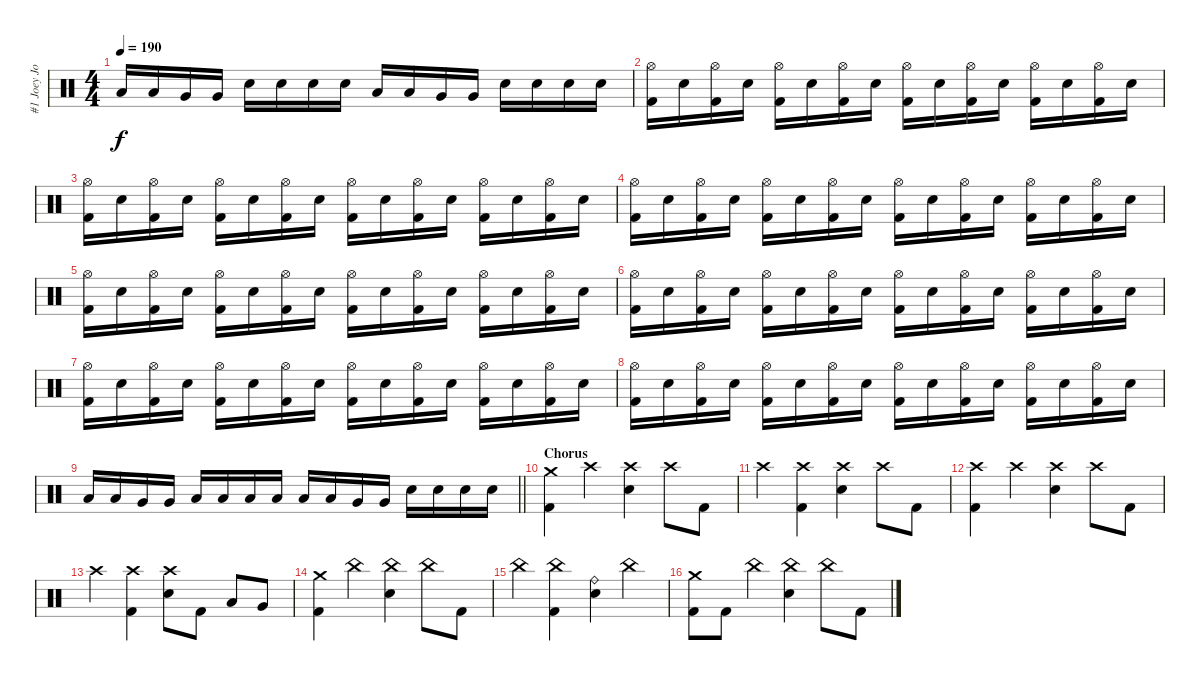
\track ("#1 Joey Jordison" "#1 Joey Jo") {instrument percussion}
\staff {score}
\articulation defaults
\ts (4 4)
\tempo 190
\clef neutral
\ks c "Low Tom (hit)".16{dy f} "Low Tom (hit)".16 "Very Low Tom (hit)".16 "Very Low Tom (hit)".16 "Electric Snare (hit)".16 "Electric Snare (hit)".16 "Electric Snare (hit)".16 "Electric Snare (hit)".16 "Low Tom (hit)".16 "Low Tom (hit)".16 "Very Low Tom (hit)".16 "Very Low Tom (hit)".16 "Electric Snare (hit)".16 "Electric Snare (hit)".16 "Electric Snare (hit)".16 "Electric Snare (hit)".16
|
("Hi-Hat (open)" "Kick (hit) 2").16 "Electric Snare (hit)".16 ("Hi-Hat (open)" "Kick (hit) 2").16 "Electric Snare (hit)".16 ("Hi-Hat (open)" "Kick (hit) 2").16 "Electric Snare (hit)".16 ("Hi-Hat (open)" "Kick (hit) 2").16 "Electric Snare (hit)".16 ("Hi-Hat (open)" "Kick (hit) 2").16 "Electric Snare (hit)".16 ("Hi-Hat (open)" "Kick (hit) 2").16 "Electric Snare (hit)".16 ("Hi-Hat (open)" "Kick (hit) 2").16 "Electric Snare (hit)".16 ("Hi-Hat (open)" "Kick (hit) 2").16 "Electric Snare (hit)".16 |
("Hi-Hat (open)" "Kick (hit) 2").16 "Electric Snare (hit)".16 ("Hi-Hat (open)" "Kick (hit) 2").16 "Electric Snare (hit)".16 ("Hi-Hat (open)" "Kick (hit) 2").16 "Electric Snare (hit)".16 ("Hi-Hat (open)" "Kick (hit) 2").16 "Electric Snare (hit)".16 ("Hi-Hat (open)" "Kick (hit) 2").16 "Electric Snare (hit)".16 ("Hi-Hat (open)" "Kick (hit) 2").16 "Electric Snare (hit)".16 ("Hi-Hat (open)" "Kick (hit) 2").16 "Electric Snare (hit)".16 ("Hi-Hat (open)" "Kick (hit) 2").16 "Electric Snare (hit)".16 |
("Hi-Hat (open)" "Kick (hit) 2").16 "Electric Snare (hit)".16 ("Hi-Hat (open)" "Kick (hit) 2").16 "Electric Snare (hit)".16 ("Hi-Hat (open)" "Kick (hit) 2").16 "Electric Snare (hit)".16 ("Hi-Hat (open)" "Kick (hit) 2").16 "Electric Snare (hit)".16 ("Hi-Hat (open)" "Kick (hit) 2").16 "Electric Snare (hit)".16 ("Hi-Hat (open)" "Kick (hit) 2").16 "Electric Snare (hit)".16 ("Hi-Hat (open)" "Kick (hit) 2").16 "Electric Snare (hit)".16 ("Hi-Hat (open)" "Kick (hit) 2").16 "Electric Snare (hit)".16 |
("Hi-Hat (open)" "Kick (hit) 2").16 "Electric Snare (hit)".16 ("Hi-Hat (open)" "Kick (hit) 2").16 "Electric Snare (hit)".16 ("Hi-Hat (open)" "Kick (hit) 2").16 "Electric Snare (hit)".16 ("Hi-Hat (open)" "Kick (hit) 2").16 "Electric Snare (hit)".16 ("Hi-Hat (open)" "Kick (hit) 2").16 "Electric Snare (hit)".16 ("Hi-Hat (open)" "Kick (hit) 2").16 "Electric Snare (hit)".16 ("Hi-Hat (open)" "Kick (hit) 2").16 "Electric Snare (hit)".16 ("Hi-Hat (open)" "Kick (hit) 2").16 "Electric Snare (hit)".16 |
("Hi-Hat (open)" "Kick (hit) 2").16 "Electric Snare (hit)".16 ("Hi-Hat (open)" "Kick (hit) 2").16 "Electric Snare (hit)".16 ("Hi-Hat (open)" "Kick (hit) 2").16 "Electric Snare (hit)".16 ("Hi-Hat (open)" "Kick (hit) 2").16 "Electric Snare (hit)".16 ("Hi-Hat (open)" "Kick (hit) 2").16 "Electric Snare (hit)".16 ("Hi-Hat (open)" "Kick (hit) 2").16 "Electric Snare (hit)".16 ("Hi-Hat (open)" "Kick (hit) 2").16 "Electric Snare (hit)".16 ("Hi-Hat (open)" "Kick (hit) 2").16 "Electric Snare (hit)".16 |
("Hi-Hat (open)" "Kick (hit) 2").16 "Electric Snare (hit)".16 ("Hi-Hat (open)" "Kick (hit) 2").16 "Electric Snare (hit)".16 ("Hi-Hat (open)" "Kick (hit) 2").16 "Electric Snare (hit)".16 ("Hi-Hat (open)" "Kick (hit) 2").16 "Electric Snare (hit)".16 ("Hi-Hat (open)" "Kick (hit) 2").16 "Electric Snare (hit)".16 ("Hi-Hat (open)" "Kick (hit) 2").16 "Electric Snare (hit)".16 ("Hi-Hat (open)" "Kick (hit) 2").16 "Electric Snare (hit)".16 ("Hi-Hat (open)" "Kick (hit) 2").16 "Electric Snare (hit)".16 |
("Hi-Hat (open)" "Kick (hit) 2").16 "Electric Snare (hit)".16 ("Hi-Hat (open)" "Kick (hit) 2").16 "Electric Snare (hit)".16 ("Hi-Hat (open)" "Kick (hit) 2").16 "Electric Snare (hit)".16 ("Hi-Hat (open)" "Kick (hit) 2").16 "Electric Snare (hit)".16 ("Hi-Hat (open)" "Kick (hit) 2").16 "Electric Snare (hit)".16 ("Hi-Hat (open)" "Kick (hit) 2").16 "Electric Snare (hit)".16 ("Hi-Hat (open)" "Kick (hit) 2").16 "Electric Snare (hit)".16 ("Hi-Hat (open)" "Kick (hit) 2").16 "Electric Snare (hit)".16 |
\barLineRight lightlight "Low Tom (hit)".16 "Low Tom (hit)".16 "Very Low Tom (hit)".16 "Very Low Tom (hit)".16 "Low Floor Tom (hit)".16 "Low Floor Tom (hit)".16 "Low Floor Tom (hit)".16 "Low Floor Tom (hit)".16 "Low Tom (hit)".16 "Low Tom (hit)".16 "Very Low Tom (hit)".16 "Very Low Tom (hit)".16 "Electric Snare (hit)".16 "Electric Snare (hit)".16 "Electric Snare (hit)".16 "Electric Snare (hit)".16
|
\section ("" "Chorus")
("Crash medium (hit)" "Kick (hit) 2").4 "Crash high (hit)".4 ("Crash high (hit)" "Electric Snare (hit)").4 "Crash high (hit)".8 "Kick (hit) 2".8 |
"Crash high (hit)".4 ("Crash high (hit)" "Kick (hit) 2").4 ("Crash high (hit)" "Electric Snare (hit)").4 "Crash high (hit)".8 "Kick (hit) 2".8 |
("Crash high (hit)" "Kick (hit) 2").4 "Crash high (hit)".4 ("Crash high (hit)" "Electric Snare (hit)").4 "Crash high (hit)".8 "Kick (hit) 2".8 |
"Crash high (hit)".4 ("Crash high (hit)" "Kick (hit) 2").4 ("Crash high (hit)" "Electric Snare (hit)").8 "Kick (hit) 2".8 "Low Tom (hit)".8 "Very Low Tom (hit)".8 |
("Crash medium (hit)" "Kick (hit) 2").4 "China (hit)".4 ("China (hit)" "Electric Snare (hit)").4 "China (hit)".8 "Kick (hit) 2".8 |
"China (hit)".4 ("China (hit)" "Kick (hit) 2").4 ("Ride (bell)" "Electric Snare (hit)").4 "China (hit)".4 |
("Crash medium (hit)" "Kick (hit) 2").8 "Kick (hit) 2".8 "China (hit)".4 ("China (hit)" "Electric Snare (hit)").4 "China (hit)".8 "Kick (hit) 2".8
